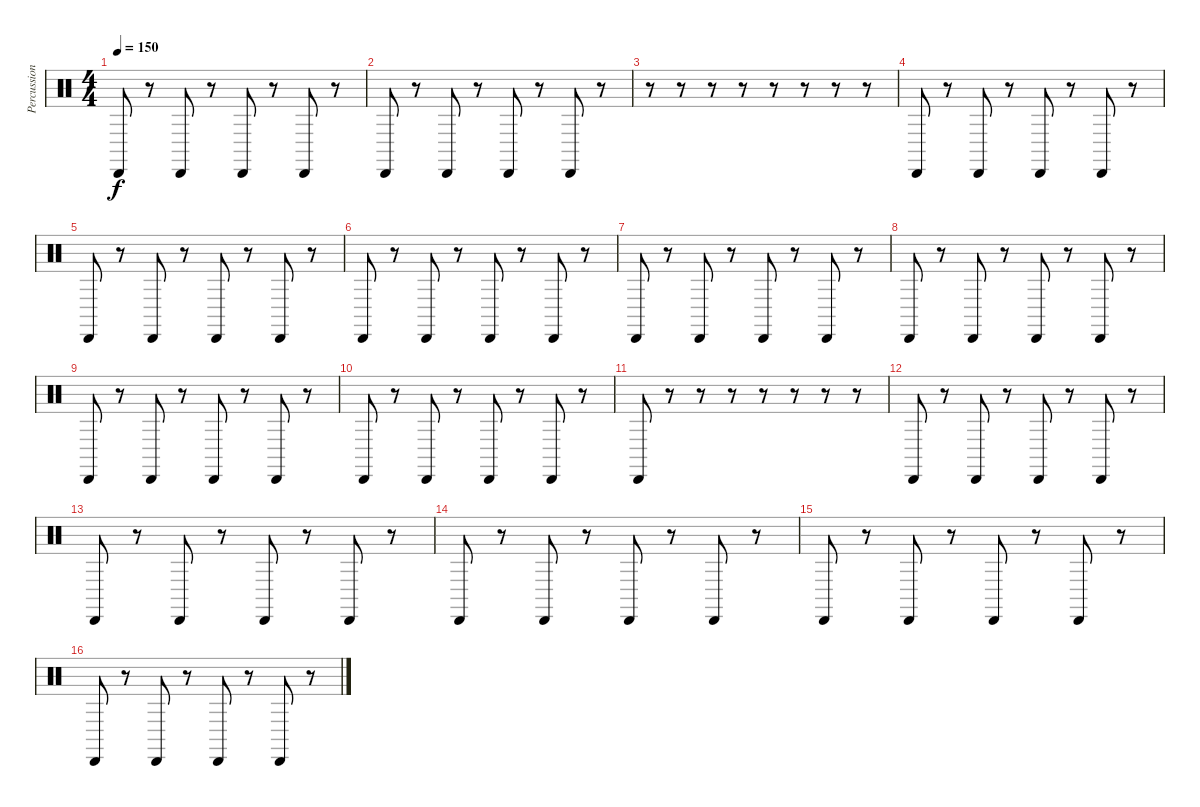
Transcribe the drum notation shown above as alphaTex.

\track ("Percussion1" "Percussion") {instrument percussion}
\staff {score}
\articulation defaults
\ts (4 4)
\tempo 150
\clef neutral
\ks aminor "Cabasa (hit)".8{dy f}
r.8 "Cabasa (hit)".8 r.8 "Cabasa (hit)".8 r.8 "Cabasa (hit)".8 r.8 |
"Cabasa (hit)".8 r.8 "Cabasa (hit)".8 r.8 "Cabasa (hit)".8 r.8 "Cabasa (hit)".8 r.8 |
r.8 r.8 r.8 r.8 r.8 r.8 r.8 r.8 |
"Cabasa (hit)".8 r.8 "Cabasa (hit)".8 r.8 "Cabasa (hit)".8 r.8 "Cabasa (hit)".8 r.8 |
"Cabasa (hit)".8 r.8 "Cabasa (hit)".8 r.8 "Cabasa (hit)".8 r.8 "Cabasa (hit)".8 r.8 |
"Cabasa (hit)".8 r.8 "Cabasa (hit)".8 r.8 "Cabasa (hit)".8 r.8 "Cabasa (hit)".8 r.8 |
"Cabasa (hit)".8 r.8 "Cabasa (hit)".8 r.8 "Cabasa (hit)".8 r.8 "Cabasa (hit)".8 r.8 |
"Cabasa (hit)".8 r.8 "Cabasa (hit)".8 r.8 "Cabasa (hit)".8 r.8 "Cabasa (hit)".8 r.8 |
"Cabasa (hit)".8 r.8 "Cabasa (hit)".8 r.8 "Cabasa (hit)".8 r.8 "Cabasa (hit)".8 r.8 |
"Cabasa (hit)".8 r.8 "Cabasa (hit)".8 r.8 "Cabasa (hit)".8 r.8 "Cabasa (hit)".8 r.8 |
"Cabasa (hit)".8 r.8 r.8 r.8 r.8 r.8 r.8 r.8 |
"Cabasa (hit)".8 r.8 "Cabasa (hit)".8 r.8 "Cabasa (hit)".8 r.8 "Cabasa (hit)".8 r.8 |
"Cabasa (hit)".8 r.8 "Cabasa (hit)".8 r.8 "Cabasa (hit)".8 r.8 "Cabasa (hit)".8 r.8 |
"Cabasa (hit)".8 r.8 "Cabasa (hit)".8 r.8 "Cabasa (hit)".8 r.8 "Cabasa (hit)".8 r.8 |
"Cabasa (hit)".8 r.8 "Cabasa (hit)".8 r.8 "Cabasa (hit)".8 r.8 "Cabasa (hit)".8 r.8 |
"Cabasa (hit)".8 r.8 "Cabasa (hit)".8 r.8 "Cabasa (hit)".8 r.8 "Cabasa (hit)".8 r.8
